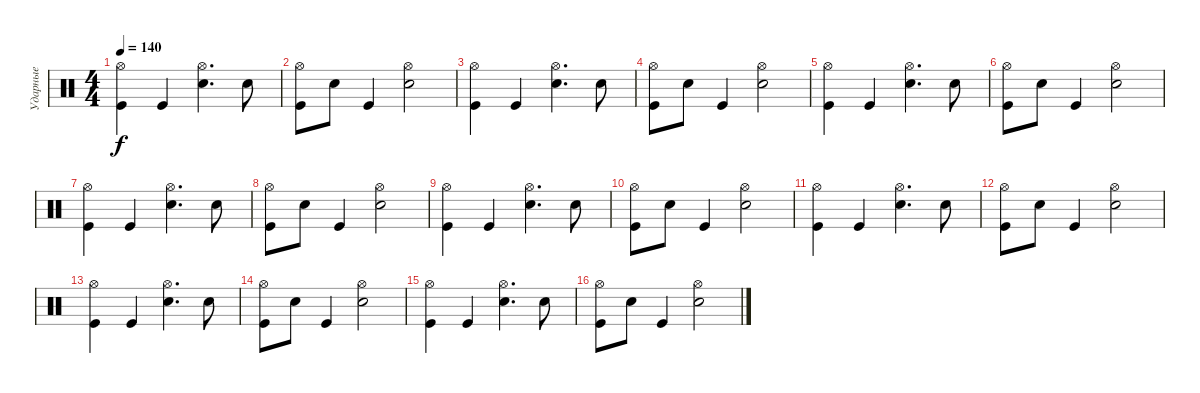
\track ("Ударные" "Ударные") {instrument percussion}
\staff {score}
\articulation defaults
\ts (4 4)
\tempo 140
\clef neutral
\ks c
("Kick (hit)" "Hi-Hat (open)").4{dy f} "Kick (hit)".4 ("Snare (hit) 2" "Hi-Hat (open)").4{d} "Snare (hit) 2".8 |
("Kick (hit)" "Hi-Hat (open)").8 "Snare (hit) 2".8 "Kick (hit)".4 ("Hi-Hat (open)" "Snare (hit) 2").2 |
("Kick (hit)" "Hi-Hat (open)").4 "Kick (hit)".4 ("Snare (hit) 2" "Hi-Hat (open)").4{d} "Snare (hit) 2".8 |
("Kick (hit)" "Hi-Hat (open)").8 "Snare (hit) 2".8 "Kick (hit)".4 ("Hi-Hat (open)" "Snare (hit) 2").2 |
("Kick (hit)" "Hi-Hat (open)").4 "Kick (hit)".4 ("Snare (hit) 2" "Hi-Hat (open)").4{d} "Snare (hit) 2".8 |
("Kick (hit)" "Hi-Hat (open)").8 "Snare (hit) 2".8 "Kick (hit)".4 ("Hi-Hat (open)" "Snare (hit) 2").2 |
("Kick (hit)" "Hi-Hat (open)").4 "Kick (hit)".4 ("Snare (hit) 2" "Hi-Hat (open)").4{d} "Snare (hit) 2".8 |
("Kick (hit)" "Hi-Hat (open)").8 "Snare (hit) 2".8 "Kick (hit)".4 ("Hi-Hat (open)" "Snare (hit) 2").2 |
("Kick (hit)" "Hi-Hat (open)").4 "Kick (hit)".4 ("Snare (hit) 2" "Hi-Hat (open)").4{d} "Snare (hit) 2".8 |
("Kick (hit)" "Hi-Hat (open)").8 "Snare (hit) 2".8 "Kick (hit)".4 ("Hi-Hat (open)" "Snare (hit) 2").2 |
("Kick (hit)" "Hi-Hat (open)").4 "Kick (hit)".4 ("Snare (hit) 2" "Hi-Hat (open)").4{d} "Snare (hit) 2".8 |
("Kick (hit)" "Hi-Hat (open)").8 "Snare (hit) 2".8 "Kick (hit)".4 ("Hi-Hat (open)" "Snare (hit) 2").2 |
("Kick (hit)" "Hi-Hat (open)").4 "Kick (hit)".4 ("Snare (hit) 2" "Hi-Hat (open)").4{d} "Snare (hit) 2".8 |
("Kick (hit)" "Hi-Hat (open)").8 "Snare (hit) 2".8 "Kick (hit)".4 ("Hi-Hat (open)" "Snare (hit) 2").2 |
("Kick (hit)" "Hi-Hat (open)").4 "Kick (hit)".4 ("Snare (hit) 2" "Hi-Hat (open)").4{d} "Snare (hit) 2".8 |
("Kick (hit)" "Hi-Hat (open)").8 "Snare (hit) 2".8 "Kick (hit)".4 ("Hi-Hat (open)" "Snare (hit) 2").2
